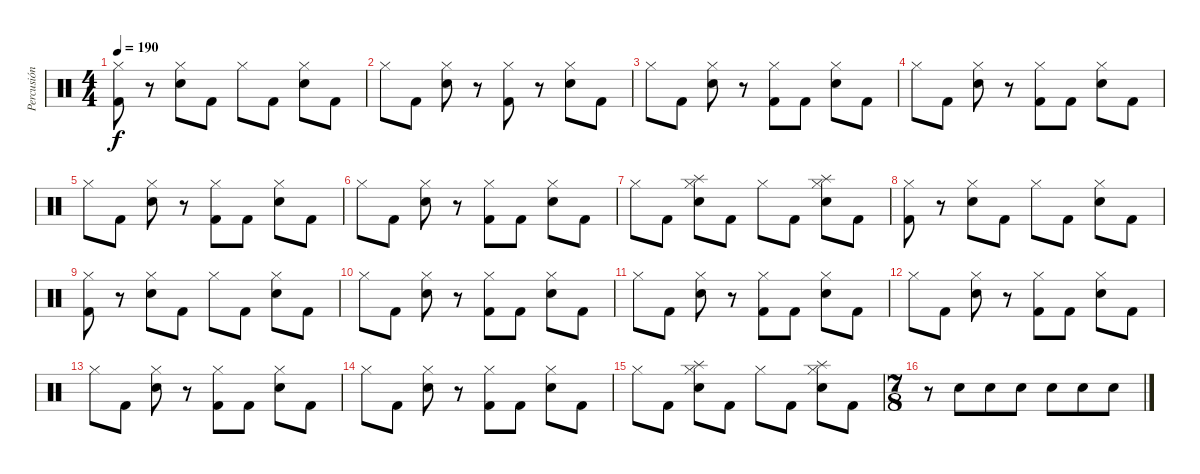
\track ("Percusión" "Percusión") {instrument percussion}
\staff {score}
\articulation defaults
\ts (4 4)
\tempo 190
\clef neutral
\ks c
("Hi-Hat (closed)" "Kick (hit) 2").8{dy f} r.8 ("Hi-Hat (closed)" "Snare (hit) 2").8 "Kick (hit) 2".8 "Hi-Hat (closed)".8 "Kick (hit) 2".8 ("Hi-Hat (closed)" "Snare (hit) 2").8 "Kick (hit) 2".8 |
"Hi-Hat (closed)".8 "Kick (hit) 2".8 ("Hi-Hat (closed)" "Snare (hit) 2").8 r.8 ("Hi-Hat (closed)" "Kick (hit) 2").8 r.8 ("Hi-Hat (closed)" "Snare (hit) 2").8 "Kick (hit) 2".8 |
"Hi-Hat (closed)".8 "Kick (hit) 2".8 ("Hi-Hat (closed)" "Snare (hit) 2").8 r.8 ("Hi-Hat (closed)" "Kick (hit) 2").8 "Kick (hit) 2".8 ("Hi-Hat (closed)" "Snare (hit) 2").8 "Kick (hit) 2".8 |
"Hi-Hat (closed)".8 "Kick (hit) 2".8 ("Hi-Hat (closed)" "Snare (hit) 2").8 r.8 ("Hi-Hat (closed)" "Kick (hit) 2").8 "Kick (hit) 2".8 ("Hi-Hat (closed)" "Snare (hit) 2").8 "Kick (hit) 2".8 |
"Hi-Hat (closed)".8 "Kick (hit) 2".8 ("Hi-Hat (closed)" "Snare (hit) 2").8 r.8 ("Hi-Hat (closed)" "Kick (hit) 2").8 "Kick (hit) 2".8 ("Hi-Hat (closed)" "Snare (hit) 2").8 "Kick (hit) 2".8 |
"Hi-Hat (closed)".8 "Kick (hit) 2".8 ("Hi-Hat (closed)" "Snare (hit) 2").8 r.8 ("Hi-Hat (closed)" "Kick (hit) 2").8 "Kick (hit) 2".8 ("Hi-Hat (closed)" "Snare (hit) 2").8 "Kick (hit) 2".8 |
"Hi-Hat (closed)".8 "Kick (hit) 2".8 ("Hi-Hat (closed)" "Splash (hit)" "Snare (hit) 2").8 "Kick (hit) 2".8 "Hi-Hat (closed)".8 "Kick (hit) 2".8 ("Hi-Hat (closed)" "Splash (hit)" "Snare (hit) 2").8 "Kick (hit) 2".8 |
("Hi-Hat (closed)" "Kick (hit) 2").8 r.8 ("Hi-Hat (closed)" "Snare (hit) 2").8 "Kick (hit) 2".8 "Hi-Hat (closed)".8 "Kick (hit) 2".8 ("Hi-Hat (closed)" "Snare (hit) 2").8 "Kick (hit) 2".8 |
("Hi-Hat (closed)" "Kick (hit) 2").8 r.8 ("Hi-Hat (closed)" "Snare (hit) 2").8 "Kick (hit) 2".8 "Hi-Hat (closed)".8 "Kick (hit) 2".8 ("Hi-Hat (closed)" "Snare (hit) 2").8 "Kick (hit) 2".8 |
"Hi-Hat (closed)".8 "Kick (hit) 2".8 ("Hi-Hat (closed)" "Snare (hit) 2").8 r.8 ("Hi-Hat (closed)" "Kick (hit) 2").8 "Kick (hit) 2".8 ("Hi-Hat (closed)" "Snare (hit) 2").8 "Kick (hit) 2".8 |
"Hi-Hat (closed)".8 "Kick (hit) 2".8 ("Hi-Hat (closed)" "Snare (hit) 2").8 r.8 ("Hi-Hat (closed)" "Kick (hit) 2").8 "Kick (hit) 2".8 ("Hi-Hat (closed)" "Snare (hit) 2").8 "Kick (hit) 2".8 |
"Hi-Hat (closed)".8 "Kick (hit) 2".8 ("Hi-Hat (closed)" "Snare (hit) 2").8 r.8 ("Hi-Hat (closed)" "Kick (hit) 2").8 "Kick (hit) 2".8 ("Hi-Hat (closed)" "Snare (hit) 2").8 "Kick (hit) 2".8 |
"Hi-Hat (closed)".8 "Kick (hit) 2".8 ("Hi-Hat (closed)" "Snare (hit) 2").8 r.8 ("Hi-Hat (closed)" "Kick (hit) 2").8 "Kick (hit) 2".8 ("Hi-Hat (closed)" "Snare (hit) 2").8 "Kick (hit) 2".8 |
"Hi-Hat (closed)".8 "Kick (hit) 2".8 ("Hi-Hat (closed)" "Snare (hit) 2").8 r.8 ("Hi-Hat (closed)" "Kick (hit) 2").8 "Kick (hit) 2".8 ("Hi-Hat (closed)" "Snare (hit) 2").8 "Kick (hit) 2".8 |
"Hi-Hat (closed)".8 "Kick (hit) 2".8 ("Hi-Hat (closed)" "Splash (hit)" "Snare (hit) 2").8 "Kick (hit) 2".8 "Hi-Hat (closed)".8 "Kick (hit) 2".8 ("Hi-Hat (closed)" "Splash (hit)" "Snare (hit) 2").8 "Kick (hit) 2".8 |
\ts (7 8)
r.8 "Snare (hit) 2".8 "Snare (hit) 2".8 "Snare (hit) 2".8 "Snare (hit) 2".8 "Snare (hit) 2".8 "Snare (hit) 2".8
